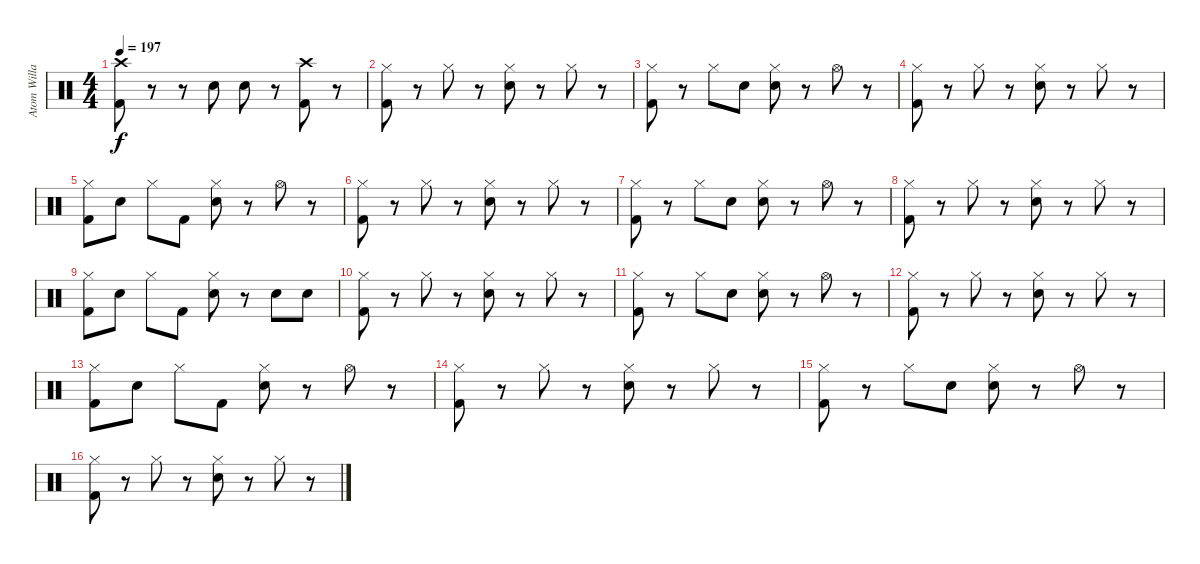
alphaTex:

\track ("Atom Willard Drums" "Atom Willa") {instrument percussion}
\staff {score}
\articulation defaults
\ts (4 4)
\tempo 197
\clef neutral
\ks c
("Crash high (hit)" "Kick (hit) 2").8{dy f} r.8 r.8 "Electric Snare (hit)".8 "Electric Snare (hit)".8 r.8 ("Crash high (hit)" "Kick (hit) 2").8 r.8 |
("Hi-Hat (closed)" "Kick (hit) 2").8 r.8 "Hi-Hat (closed)".8 r.8 ("Hi-Hat (closed)" "Electric Snare (hit)").8 r.8 "Hi-Hat (closed)".8 r.8 |
("Hi-Hat (closed)" "Kick (hit) 2").8 r.8 "Hi-Hat (closed)".8 "Electric Snare (hit)".8 ("Hi-Hat (closed)" "Electric Snare (hit)").8 r.8 "Hi-Hat (open)".8 r.8 |
("Hi-Hat (closed)" "Kick (hit) 2").8 r.8 "Hi-Hat (closed)".8 r.8 ("Hi-Hat (closed)" "Electric Snare (hit)").8 r.8 "Hi-Hat (closed)".8 r.8 |
("Hi-Hat (closed)" "Kick (hit) 2").8 "Electric Snare (hit)".8 "Hi-Hat (closed)".8 "Kick (hit) 2".8 ("Hi-Hat (closed)" "Electric Snare (hit)").8 r.8 "Hi-Hat (open)".8 r.8 |
("Hi-Hat (closed)" "Kick (hit) 2").8 r.8 "Hi-Hat (closed)".8 r.8 ("Hi-Hat (closed)" "Electric Snare (hit)").8 r.8 "Hi-Hat (closed)".8 r.8 |
("Hi-Hat (closed)" "Kick (hit) 2").8 r.8 "Hi-Hat (closed)".8 "Electric Snare (hit)".8 ("Hi-Hat (closed)" "Electric Snare (hit)").8 r.8 "Hi-Hat (open)".8 r.8 |
("Hi-Hat (closed)" "Kick (hit) 2").8 r.8 "Hi-Hat (closed)".8 r.8 ("Hi-Hat (closed)" "Electric Snare (hit)").8 r.8 "Hi-Hat (closed)".8 r.8 |
("Hi-Hat (closed)" "Kick (hit) 2").8 "Electric Snare (hit)".8 "Hi-Hat (closed)".8 "Kick (hit) 2".8 ("Hi-Hat (closed)" "Electric Snare (hit)").8 r.8 "Electric Snare (hit)".8 "Electric Snare (hit)".8 |
("Hi-Hat (closed)" "Kick (hit) 2").8 r.8 "Hi-Hat (closed)".8 r.8 ("Hi-Hat (closed)" "Electric Snare (hit)").8 r.8 "Hi-Hat (closed)".8 r.8 |
("Hi-Hat (closed)" "Kick (hit) 2").8 r.8 "Hi-Hat (closed)".8 "Electric Snare (hit)".8 ("Hi-Hat (closed)" "Electric Snare (hit)").8 r.8 "Hi-Hat (open)".8 r.8 |
("Hi-Hat (closed)" "Kick (hit) 2").8 r.8 "Hi-Hat (closed)".8 r.8 ("Hi-Hat (closed)" "Electric Snare (hit)").8 r.8 "Hi-Hat (closed)".8 r.8 |
("Hi-Hat (closed)" "Kick (hit) 2").8 "Electric Snare (hit)".8 "Hi-Hat (closed)".8 "Kick (hit) 2".8 ("Hi-Hat (closed)" "Electric Snare (hit)").8 r.8 "Hi-Hat (open)".8 r.8 |
("Hi-Hat (closed)" "Kick (hit) 2").8 r.8 "Hi-Hat (closed)".8 r.8 ("Hi-Hat (closed)" "Electric Snare (hit)").8 r.8 "Hi-Hat (closed)".8 r.8 |
("Hi-Hat (closed)" "Kick (hit) 2").8 r.8 "Hi-Hat (closed)".8 "Electric Snare (hit)".8 ("Hi-Hat (closed)" "Electric Snare (hit)").8 r.8 "Hi-Hat (open)".8 r.8 |
("Hi-Hat (closed)" "Kick (hit) 2").8 r.8 "Hi-Hat (closed)".8 r.8 ("Hi-Hat (closed)" "Electric Snare (hit)").8 r.8 "Hi-Hat (closed)".8 r.8
